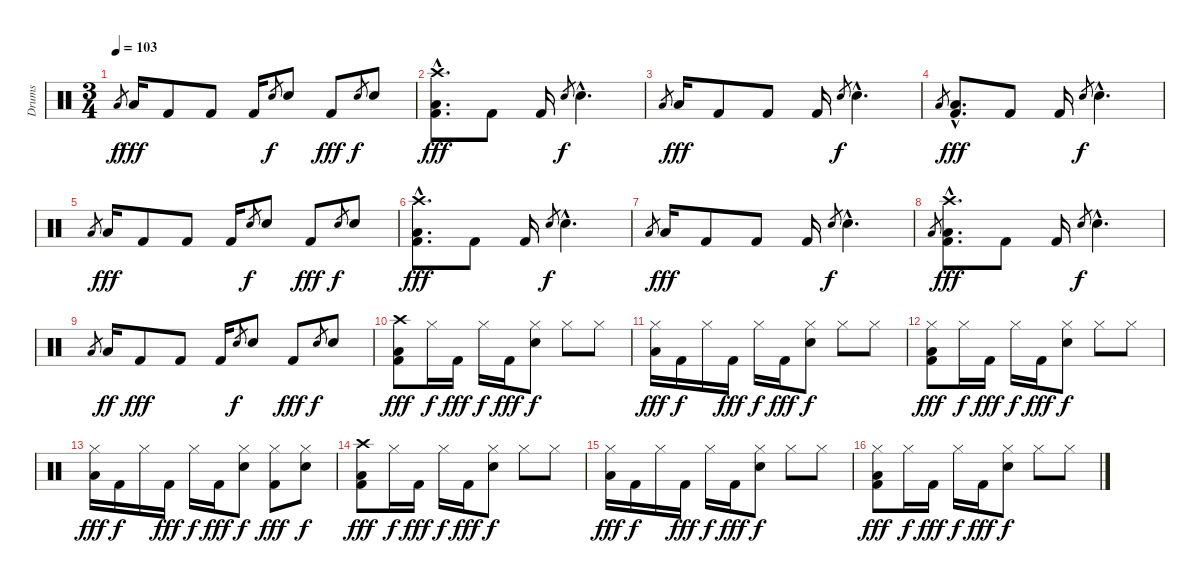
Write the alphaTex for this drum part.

\track ("Drums" "Drums") {instrument percussion}
\staff {score}
\articulation defaults
\ts (3 4)
\tempo 103
\clef neutral
\ks c "Low Floor Tom (hit)".8{gr dy f} "Low Floor Tom (hit)".16{dy fff} "Kick (hit) 2".8 "Kick (hit) 2".8 "Kick (hit) 2".16 "Snare (hit) 2".8{gr dy f} "Snare (hit) 2".8 "Kick (hit) 2".8{dy fff} "Snare (hit) 2".8{gr dy f} "Snare (hit) 2".8
|
("Crash high (hit)"{hac} "Low Floor Tom (hit)"{hac} "Kick (hit) 2"{hac}).8{d dy fff} "Kick (hit) 2".8 "Kick (hit) 2".16 "Snare (hit) 2".8{gr dy f} "Snare (hit) 2"{hac}.4{d} |
"Low Floor Tom (hit)".8{gr} "Low Floor Tom (hit)".16{dy fff} "Kick (hit) 2".8 "Kick (hit) 2".8 "Kick (hit) 2".16 "Snare (hit) 2".8{gr dy f} "Snare (hit) 2"{hac}.4{d} |
"Low Floor Tom (hit)".8{gr} ("Low Floor Tom (hit)"{hac} "Kick (hit) 2"{hac}).8{d dy fff} "Kick (hit) 2".8 "Kick (hit) 2".16 "Snare (hit) 2".8{gr dy f} "Snare (hit) 2"{hac}.4{d} |
"Low Floor Tom (hit)".8{gr} "Low Floor Tom (hit)".16{dy fff} "Kick (hit) 2".8 "Kick (hit) 2".8 "Kick (hit) 2".16 "Snare (hit) 2".8{gr dy f} "Snare (hit) 2".8 "Kick (hit) 2".8{dy fff} "Snare (hit) 2".8{gr dy f} "Snare (hit) 2".8 |
("Crash high (hit)"{hac} "Low Floor Tom (hit)"{hac} "Kick (hit) 2"{hac}).8{d dy fff} "Kick (hit) 2".8 "Kick (hit) 2".16 "Snare (hit) 2".8{gr dy f} "Snare (hit) 2"{hac}.4{d} |
"Low Floor Tom (hit)".8{gr} "Low Floor Tom (hit)".16{dy fff} "Kick (hit) 2".8 "Kick (hit) 2".8 "Kick (hit) 2".16 "Snare (hit) 2".8{gr dy f} "Snare (hit) 2"{hac}.4{d} |
"Low Floor Tom (hit)".8{gr} ("Crash high (hit)"{hac} "Low Floor Tom (hit)"{hac} "Kick (hit) 2"{hac}).8{d dy fff} "Kick (hit) 2".8 "Kick (hit) 2".16 "Snare (hit) 2".8{gr dy f} "Snare (hit) 2"{hac}.4{d} |
"Low Floor Tom (hit)".8{gr} "Low Floor Tom (hit)".16{dy ff} "Kick (hit) 2".8{dy fff} "Kick (hit) 2".8 "Kick (hit) 2".16 "Snare (hit) 2".8{gr dy f} "Snare (hit) 2".8 "Kick (hit) 2".8{dy fff} "Snare (hit) 2".8{gr dy f} "Snare (hit) 2".8 |
("Crash high (hit)" "Low Floor Tom (hit)" "Kick (hit) 2").8{dy fff} "Hi-Hat (closed)".16{dy f} "Kick (hit) 2".16{dy fff} "Hi-Hat (closed)".16{dy f} "Kick (hit) 2".16{dy fff} ("Hi-Hat (closed)" "Snare (hit) 2").8{dy f} "Hi-Hat (closed)".8 "Hi-Hat (closed)".8 |
("Hi-Hat (closed)" "Low Floor Tom (hit)").16{dy fff} "Kick (hit) 2".16{dy f} "Hi-Hat (closed)".16 "Kick (hit) 2".16{dy fff} "Hi-Hat (closed)".16{dy f} "Kick (hit) 2".16{dy fff} ("Hi-Hat (closed)" "Snare (hit) 2").8{dy f} "Hi-Hat (closed)".8 "Hi-Hat (closed)".8 |
("Hi-Hat (closed)" "Low Floor Tom (hit)" "Kick (hit) 2").8{dy fff} "Hi-Hat (closed)".16{dy f} "Kick (hit) 2".16{dy fff} "Hi-Hat (closed)".16{dy f} "Kick (hit) 2".16{dy fff} ("Hi-Hat (closed)" "Snare (hit) 2").8{dy f} "Hi-Hat (closed)".8 "Hi-Hat (closed)".8 |
("Hi-Hat (closed)" "Low Floor Tom (hit)").16{dy fff} "Kick (hit) 2".16{dy f} "Hi-Hat (closed)".16 "Kick (hit) 2".16{dy fff} "Hi-Hat (closed)".16{dy f} "Kick (hit) 2".16{dy fff} ("Hi-Hat (closed)" "Snare (hit) 2").8{dy f} ("Hi-Hat (closed)" "Kick (hit) 2").8{dy fff} ("Hi-Hat (closed)" "Snare (hit) 2").8{dy f} |
("Crash high (hit)" "Low Floor Tom (hit)" "Kick (hit) 2").8{dy fff} "Hi-Hat (closed)".16{dy f} "Kick (hit) 2".16{dy fff} "Hi-Hat (closed)".16{dy f} "Kick (hit) 2".16{dy fff} ("Hi-Hat (closed)" "Snare (hit) 2").8{dy f} "Hi-Hat (closed)".8 "Hi-Hat (closed)".8 |
("Hi-Hat (closed)" "Low Floor Tom (hit)").16{dy fff} "Kick (hit) 2".16{dy f} "Hi-Hat (closed)".16 "Kick (hit) 2".16{dy fff} "Hi-Hat (closed)".16{dy f} "Kick (hit) 2".16{dy fff} ("Hi-Hat (closed)" "Snare (hit) 2").8{dy f} "Hi-Hat (closed)".8 "Hi-Hat (closed)".8 |
("Hi-Hat (closed)" "Low Floor Tom (hit)" "Kick (hit) 2").8{dy fff} "Hi-Hat (closed)".16{dy f} "Kick (hit) 2".16{dy fff} "Hi-Hat (closed)".16{dy f} "Kick (hit) 2".16{dy fff} ("Hi-Hat (closed)" "Snare (hit) 2").8{dy f} "Hi-Hat (closed)".8 "Hi-Hat (closed)".8
